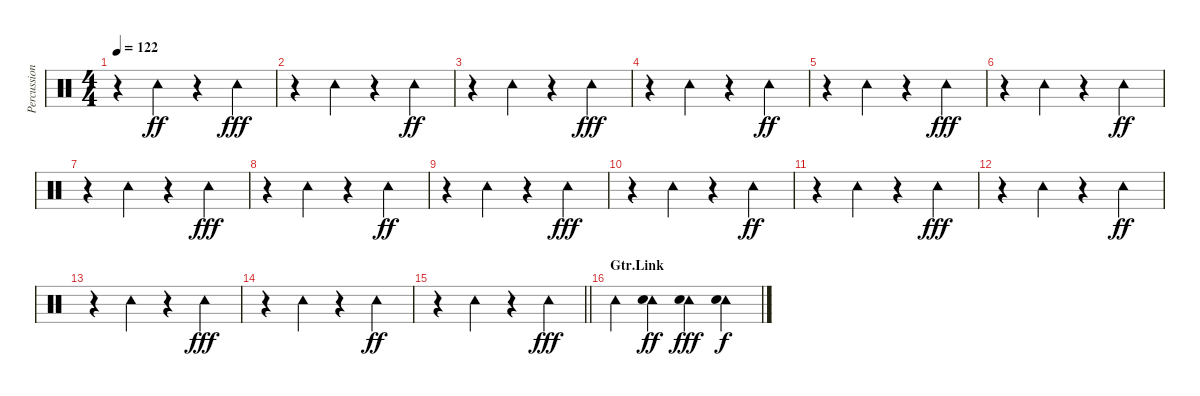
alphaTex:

\track ("Percussion" "Percussion") {instrument percussion}
\staff {score}
\articulation defaults
\ts (4 4)
\tempo 122
\clef neutral
\ks c
r.4{dy ff} "Tambourine (hit)".4 r.4 "Tambourine (hit)".4{dy fff} |
r.4 "Tambourine (hit)".4 r.4 "Tambourine (hit)".4{dy ff} |
r.4 "Tambourine (hit)".4 r.4 "Tambourine (hit)".4{dy fff} |
r.4 "Tambourine (hit)".4 r.4 "Tambourine (hit)".4{dy ff} |
r.4 "Tambourine (hit)".4 r.4 "Tambourine (hit)".4{dy fff} |
r.4 "Tambourine (hit)".4 r.4 "Tambourine (hit)".4{dy ff} |
r.4 "Tambourine (hit)".4 r.4 "Tambourine (hit)".4{dy fff} |
r.4 "Tambourine (hit)".4 r.4 "Tambourine (hit)".4{dy ff} |
r.4 "Tambourine (hit)".4 r.4 "Tambourine (hit)".4{dy fff} |
r.4 "Tambourine (hit)".4 r.4 "Tambourine (hit)".4{dy ff} |
r.4 "Tambourine (hit)".4 r.4 "Tambourine (hit)".4{dy fff} |
r.4 "Tambourine (hit)".4 r.4 "Tambourine (hit)".4{dy ff} |
r.4 "Tambourine (hit)".4 r.4 "Tambourine (hit)".4{dy fff} |
r.4 "Tambourine (hit)".4 r.4 "Tambourine (hit)".4{dy ff} |
\barLineRight lightlight
r.4 "Tambourine (hit)".4 r.4 "Tambourine (hit)".4{dy fff} |
\section ("" "Gtr.Link")
"Tambourine (hit)".4 ("Tambourine (hit)" "Hand Clap (hit)").4{dy ff} ("Tambourine (hit)" "Hand Clap (hit)").4{dy fff} ("Tambourine (hit)" "Hand Clap (hit)").4{dy f}
